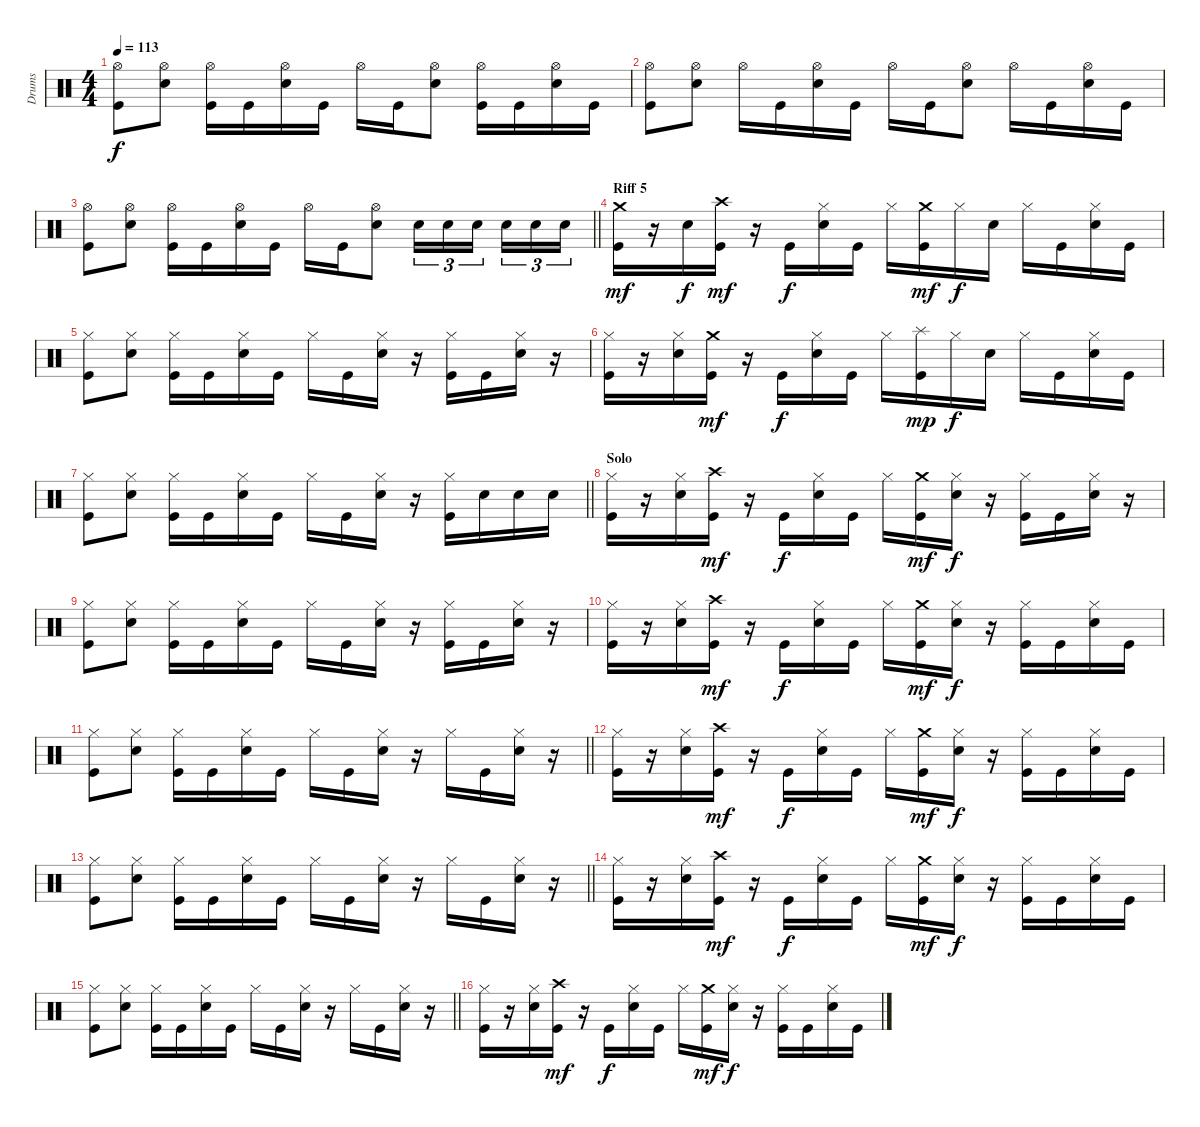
\track ("Drums" "Drums") {instrument percussion}
\staff {score}
\articulation defaults
\ts (4 4)
\tempo 113
\clef neutral
\ks c
("Hi-Hat (open)" "Kick (hit)").8{dy f} ("Hi-Hat (open)" "Snare (hit) 2").8 ("Hi-Hat (open)" "Kick (hit)").16 "Kick (hit)".16 ("Hi-Hat (open)" "Snare (hit) 2").16 "Kick (hit)".16 "Hi-Hat (open)".16 "Kick (hit)".16 ("Hi-Hat (open)" "Snare (hit) 2").8 ("Hi-Hat (open)" "Kick (hit)").16 "Kick (hit)".16 ("Hi-Hat (open)" "Snare (hit) 2").16 "Kick (hit)".16 |
("Hi-Hat (open)" "Kick (hit)").8 ("Hi-Hat (open)" "Snare (hit) 2").8 "Hi-Hat (open)".16 "Kick (hit)".16 ("Hi-Hat (open)" "Snare (hit) 2").16 "Kick (hit)".16 "Hi-Hat (open)".16 "Kick (hit)".16 ("Hi-Hat (open)" "Snare (hit) 2").8 "Hi-Hat (open)".16 "Kick (hit)".16 ("Hi-Hat (open)" "Snare (hit) 2").16 "Kick (hit)".16 |
\barLineRight lightlight
("Hi-Hat (open)" "Kick (hit)").8 ("Hi-Hat (open)" "Snare (hit) 2").8 ("Hi-Hat (open)" "Kick (hit)").16 "Kick (hit)".16 ("Hi-Hat (open)" "Snare (hit) 2").16 "Kick (hit)".16 "Hi-Hat (open)".16 "Kick (hit)".16 ("Hi-Hat (open)" "Snare (hit) 2").8 "Snare (hit) 2".16{tu (3 2)} "Snare (hit) 2".16{tu (3 2)} "Snare (hit) 2".16{tu (3 2) beam splitsecondary} "Snare (hit) 2".16{tu (3 2)} "Snare (hit) 2".16{tu (3 2)} "Snare (hit) 2".16{tu (3 2)} |
\section ("" "Riff 5")
("Crash medium (hit)" "Kick (hit)").16{dy mf} r.16 "Snare (hit) 2".16{dy f} ("Crash high (hit)" "Kick (hit)").16{dy mf} r.16 "Kick (hit)".16{dy f} ("Hi-Hat (closed)" "Snare (hit) 2").16 "Kick (hit)".16 "Hi-Hat (closed)".16 ("Crash medium (hit)" "Kick (hit)").16{dy mf} "Hi-Hat (closed)".16{dy f} "Snare (hit) 2".16 "Hi-Hat (closed)".16 "Kick (hit)".16 ("Hi-Hat (closed)" "Snare (hit) 2").16 "Kick (hit)".16 |
("Hi-Hat (closed)" "Kick (hit)").8 ("Hi-Hat (closed)" "Snare (hit) 2").8 ("Hi-Hat (closed)" "Kick (hit)").16 "Kick (hit)".16 ("Hi-Hat (closed)" "Snare (hit) 2").16 "Kick (hit)".16 "Hi-Hat (closed)".16 "Kick (hit)".16 ("Hi-Hat (closed)" "Snare (hit) 2").16 r.16 ("Hi-Hat (closed)" "Kick (hit)").16 "Kick (hit)".16 ("Hi-Hat (closed)" "Snare (hit) 2").16 r.16 |
("Hi-Hat (closed)" "Kick (hit)").16 r.16 ("Hi-Hat (closed)" "Snare (hit) 2").16 ("Crash medium (hit)" "Kick (hit)").16{dy mf} r.16 "Kick (hit)".16{dy f} ("Hi-Hat (closed)" "Snare (hit) 2").16 "Kick (hit)".16 "Hi-Hat (closed)".16 ("Splash (hit)" "Kick (hit)").16{dy mp} "Hi-Hat (closed)".16{dy f} "Snare (hit) 2".16 "Hi-Hat (closed)".16 "Kick (hit)".16 ("Hi-Hat (closed)" "Snare (hit) 2").16 "Kick (hit)".16 |
\barLineRight lightlight
("Hi-Hat (closed)" "Kick (hit)").8 ("Hi-Hat (closed)" "Snare (hit) 2").8 ("Hi-Hat (closed)" "Kick (hit)").16 "Kick (hit)".16 ("Hi-Hat (closed)" "Snare (hit) 2").16 "Kick (hit)".16 "Hi-Hat (closed)".16 "Kick (hit)".16 ("Hi-Hat (closed)" "Snare (hit) 2").16 r.16 ("Hi-Hat (closed)" "Kick (hit)").16 "Snare (hit) 2".16 "Snare (hit) 2".16 "Snare (hit) 2".16 |
\section ("" "Solo")
("Hi-Hat (closed)" "Kick (hit)").16 r.16 ("Hi-Hat (closed)" "Snare (hit) 2").16 ("Crash high (hit)" "Kick (hit)").16{dy mf} r.16 "Kick (hit)".16{dy f} ("Hi-Hat (closed)" "Snare (hit) 2").16 "Kick (hit)".16 "Hi-Hat (closed)".16 ("Crash medium (hit)" "Kick (hit)").16{dy mf} ("Hi-Hat (closed)" "Snare (hit) 2").16{dy f} r.16 ("Hi-Hat (closed)" "Kick (hit)").16 "Kick (hit)".16 ("Hi-Hat (closed)" "Snare (hit) 2").16 r.16 |
("Hi-Hat (closed)" "Kick (hit)").8 ("Hi-Hat (closed)" "Snare (hit) 2").8 ("Hi-Hat (closed)" "Kick (hit)").16 "Kick (hit)".16 ("Hi-Hat (closed)" "Snare (hit) 2").16 "Kick (hit)".16 "Hi-Hat (closed)".16 "Kick (hit)".16 ("Hi-Hat (closed)" "Snare (hit) 2").16 r.16 ("Hi-Hat (closed)" "Kick (hit)").16 "Kick (hit)".16 ("Hi-Hat (closed)" "Snare (hit) 2").16 r.16 |
("Hi-Hat (closed)" "Kick (hit)").16 r.16 ("Hi-Hat (closed)" "Snare (hit) 2").16 ("Crash high (hit)" "Kick (hit)").16{dy mf} r.16 "Kick (hit)".16{dy f} ("Hi-Hat (closed)" "Snare (hit) 2").16 "Kick (hit)".16 "Hi-Hat (closed)".16 ("Crash medium (hit)" "Kick (hit)").16{dy mf} ("Hi-Hat (closed)" "Snare (hit) 2").16{dy f} r.16 ("Hi-Hat (closed)" "Kick (hit)").16 "Kick (hit)".16 ("Hi-Hat (closed)" "Snare (hit) 2").16 "Kick (hit)".16 |
\barLineRight lightlight
("Hi-Hat (closed)" "Kick (hit)").8 ("Hi-Hat (closed)" "Snare (hit) 2").8 ("Hi-Hat (closed)" "Kick (hit)").16 "Kick (hit)".16 ("Hi-Hat (closed)" "Snare (hit) 2").16 "Kick (hit)".16 "Hi-Hat (closed)".16 "Kick (hit)".16 ("Hi-Hat (closed)" "Snare (hit) 2").16 r.16 "Hi-Hat (closed)".16 "Kick (hit)".16 ("Hi-Hat (closed)" "Snare (hit) 2").16 r.16 |
("Hi-Hat (closed)" "Kick (hit)").16 r.16 ("Hi-Hat (closed)" "Snare (hit) 2").16 ("Crash high (hit)" "Kick (hit)").16{dy mf} r.16 "Kick (hit)".16{dy f} ("Hi-Hat (closed)" "Snare (hit) 2").16 "Kick (hit)".16 "Hi-Hat (closed)".16 ("Crash medium (hit)" "Kick (hit)").16{dy mf} ("Hi-Hat (closed)" "Snare (hit) 2").16{dy f} r.16 ("Hi-Hat (closed)" "Kick (hit)").16 "Kick (hit)".16 ("Hi-Hat (closed)" "Snare (hit) 2").16 "Kick (hit)".16 |
\barLineRight lightlight
("Hi-Hat (closed)" "Kick (hit)").8 ("Hi-Hat (closed)" "Snare (hit) 2").8 ("Hi-Hat (closed)" "Kick (hit)").16 "Kick (hit)".16 ("Hi-Hat (closed)" "Snare (hit) 2").16 "Kick (hit)".16 "Hi-Hat (closed)".16 "Kick (hit)".16 ("Hi-Hat (closed)" "Snare (hit) 2").16 r.16 "Hi-Hat (closed)".16 "Kick (hit)".16 ("Hi-Hat (closed)" "Snare (hit) 2").16 r.16 |
("Hi-Hat (closed)" "Kick (hit)").16 r.16 ("Hi-Hat (closed)" "Snare (hit) 2").16 ("Crash high (hit)" "Kick (hit)").16{dy mf} r.16 "Kick (hit)".16{dy f} ("Hi-Hat (closed)" "Snare (hit) 2").16 "Kick (hit)".16 "Hi-Hat (closed)".16 ("Crash medium (hit)" "Kick (hit)").16{dy mf} ("Hi-Hat (closed)" "Snare (hit) 2").16{dy f} r.16 ("Hi-Hat (closed)" "Kick (hit)").16 "Kick (hit)".16 ("Hi-Hat (closed)" "Snare (hit) 2").16 "Kick (hit)".16 |
\barLineRight lightlight
("Hi-Hat (closed)" "Kick (hit)").8 ("Hi-Hat (closed)" "Snare (hit) 2").8 ("Hi-Hat (closed)" "Kick (hit)").16 "Kick (hit)".16 ("Hi-Hat (closed)" "Snare (hit) 2").16 "Kick (hit)".16 "Hi-Hat (closed)".16 "Kick (hit)".16 ("Hi-Hat (closed)" "Snare (hit) 2").16 r.16 "Hi-Hat (closed)".16 "Kick (hit)".16 ("Hi-Hat (closed)" "Snare (hit) 2").16 r.16 |
("Hi-Hat (closed)" "Kick (hit)").16 r.16 ("Hi-Hat (closed)" "Snare (hit) 2").16 ("Crash high (hit)" "Kick (hit)").16{dy mf} r.16 "Kick (hit)".16{dy f} ("Hi-Hat (closed)" "Snare (hit) 2").16 "Kick (hit)".16 "Hi-Hat (closed)".16 ("Crash medium (hit)" "Kick (hit)").16{dy mf} ("Hi-Hat (closed)" "Snare (hit) 2").16{dy f} r.16 ("Hi-Hat (closed)" "Kick (hit)").16 "Kick (hit)".16 ("Hi-Hat (closed)" "Snare (hit) 2").16 "Kick (hit)".16
